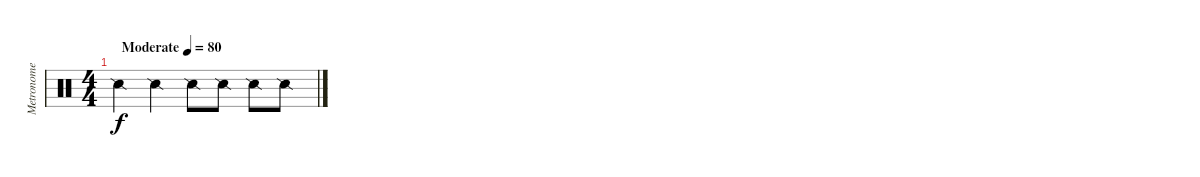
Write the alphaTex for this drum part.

\track ("Metronome" "Metronome") {instrument percussion}
\staff {score}
\articulation defaults
\ts (4 4)
\tempo (80 "Moderate")
\clef neutral
\ks c "Snare (side stick) 2".4{dy f} "Snare (side stick) 2".4 "Snare (side stick) 2".8 "Snare (side stick) 2".8 "Snare (side stick) 2".8 "Snare (side stick) 2".8
